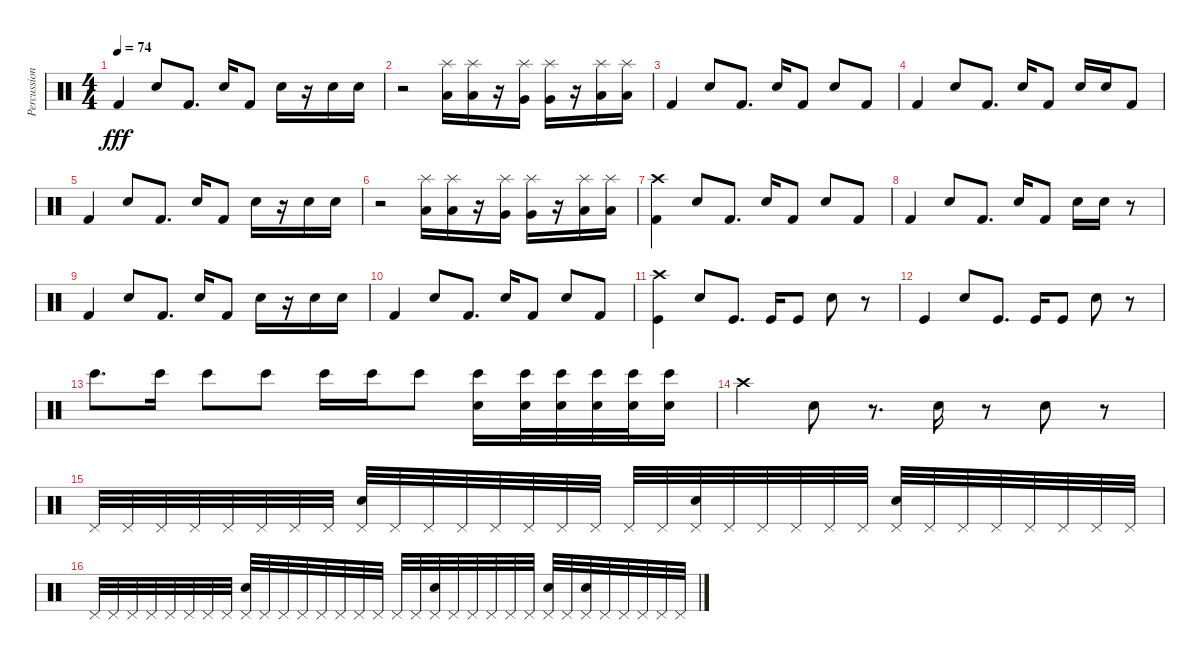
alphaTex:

\track ("Percussion" "Percussion") {instrument percussion}
\staff {score}
\articulation defaults
\ts (4 4)
\tempo 74
\clef neutral
\ks c "Kick (hit) 2".4{dy fff} "Electric Snare (hit)".8 "Kick (hit) 2".8{d} "Electric Snare (hit)".16 "Kick (hit) 2".8 "Electric Snare (hit)".16
r.16 "Electric Snare (hit)".16 "Electric Snare (hit)".16 |
r.2 ("Splash (hit)" "Low Tom (hit)").16 ("Splash (hit)" "Low Tom (hit)").16 r.16 ("Splash (hit)" "Very Low Tom (hit)").16 ("Splash (hit)" "Very Low Tom (hit)").16 r.16 ("Splash (hit)" "Low Floor Tom (hit)").16 ("Splash (hit)" "Low Floor Tom (hit)").16 |
"Kick (hit) 2".4 "Electric Snare (hit)".8 "Kick (hit) 2".8{d} "Electric Snare (hit)".16 "Kick (hit) 2".8 "Electric Snare (hit)".8 "Kick (hit) 2".8 |
"Kick (hit) 2".4 "Electric Snare (hit)".8 "Kick (hit) 2".8{d} "Electric Snare (hit)".16 "Kick (hit) 2".8 "Electric Snare (hit)".16 "Electric Snare (hit)".16 "Kick (hit) 2".8 |
"Kick (hit) 2".4 "Electric Snare (hit)".8 "Kick (hit) 2".8{d} "Electric Snare (hit)".16 "Kick (hit) 2".8 "Electric Snare (hit)".16 r.16 "Electric Snare (hit)".16 "Electric Snare (hit)".16 |
r.2 ("Splash (hit)" "Low Tom (hit)").16 ("Splash (hit)" "Low Tom (hit)").16 r.16 ("Splash (hit)" "Very Low Tom (hit)").16 ("Splash (hit)" "Very Low Tom (hit)").16 r.16 ("Splash (hit)" "Low Floor Tom (hit)").16 ("Splash (hit)" "Low Floor Tom (hit)").16 |
("Crash high (hit)" "Kick (hit) 2").4 "Electric Snare (hit)".8 "Kick (hit) 2".8{d} "Electric Snare (hit)".16 "Kick (hit) 2".8 "Electric Snare (hit)".8 "Kick (hit) 2".8 |
"Kick (hit) 2".4 "Electric Snare (hit)".8 "Kick (hit) 2".8{d} "Electric Snare (hit)".16 "Kick (hit) 2".8 "Electric Snare (hit)".16 "Electric Snare (hit)".16 r.8 |
"Kick (hit) 2".4 "Electric Snare (hit)".8 "Kick (hit) 2".8{d} "Electric Snare (hit)".16 "Kick (hit) 2".8 "Electric Snare (hit)".16 r.16 "Electric Snare (hit)".16 "Electric Snare (hit)".16 |
"Kick (hit) 2".4 "Electric Snare (hit)".8 "Kick (hit) 2".8{d} "Electric Snare (hit)".16 "Kick (hit) 2".8 "Electric Snare (hit)".8 "Kick (hit) 2".8 |
("Crash high (hit)" "Kick (hit)").4 "Hand Clap (hit)".8 "Kick (hit)".8{d} "Kick (hit)".16 "Kick (hit)".8 "Hand Clap (hit)".8 r.8 |
"Kick (hit)".4 "Hand Clap (hit)".8 "Kick (hit)".8{d} "Kick (hit)".16 "Kick (hit)".8 "Hand Clap (hit)".8 r.8 |
"Bongo High (hit)".8{d} "Bongo High (hit)".16 "Bongo High (hit)".8 "Bongo High (hit)".8 "Bongo High (hit)".16 "Bongo High (hit)".16 "Bongo High (hit)".8 ("Electric Snare (hit)" "Bongo High (hit)").16 ("Electric Snare (hit)" "Bongo High (hit)").32 ("Electric Snare (hit)" "Bongo High (hit)").32 ("Electric Snare (hit)" "Bongo High (hit)").32 ("Electric Snare (hit)" "Bongo High (hit)").32 ("Electric Snare (hit)" "Bongo High (hit)").16 |
"Crash high (hit)".4 "Electric Snare (hit)".8 r.8{d} "Electric Snare (hit)".16 r.8 "Electric Snare (hit)".8 r.8 |
"Pedal Hi-Hat (hit)".32 "Pedal Hi-Hat (hit)".32 "Pedal Hi-Hat (hit)".32 "Pedal Hi-Hat (hit)".32 "Pedal Hi-Hat (hit)".32 "Pedal Hi-Hat (hit)".32 "Pedal Hi-Hat (hit)".32 "Pedal Hi-Hat (hit)".32 ("Pedal Hi-Hat (hit)" "Electric Snare (hit)").32 "Pedal Hi-Hat (hit)".32 "Pedal Hi-Hat (hit)".32 "Pedal Hi-Hat (hit)".32 "Pedal Hi-Hat (hit)".32 "Pedal Hi-Hat (hit)".32 "Pedal Hi-Hat (hit)".32 "Pedal Hi-Hat (hit)".32 "Pedal Hi-Hat (hit)".32 "Pedal Hi-Hat (hit)".32 ("Pedal Hi-Hat (hit)" "Electric Snare (hit)").32 "Pedal Hi-Hat (hit)".32 "Pedal Hi-Hat (hit)".32 "Pedal Hi-Hat (hit)".32 "Pedal Hi-Hat (hit)".32 "Pedal Hi-Hat (hit)".32 ("Pedal Hi-Hat (hit)" "Electric Snare (hit)").32 "Pedal Hi-Hat (hit)".32 "Pedal Hi-Hat (hit)".32 "Pedal Hi-Hat (hit)".32 "Pedal Hi-Hat (hit)".32 "Pedal Hi-Hat (hit)".32 "Pedal Hi-Hat (hit)".32 "Pedal Hi-Hat (hit)".32 |
"Pedal Hi-Hat (hit)".32 "Pedal Hi-Hat (hit)".32 "Pedal Hi-Hat (hit)".32 "Pedal Hi-Hat (hit)".32 "Pedal Hi-Hat (hit)".32 "Pedal Hi-Hat (hit)".32 "Pedal Hi-Hat (hit)".32 "Pedal Hi-Hat (hit)".32 ("Pedal Hi-Hat (hit)" "Electric Snare (hit)").32 "Pedal Hi-Hat (hit)".32 "Pedal Hi-Hat (hit)".32 "Pedal Hi-Hat (hit)".32 "Pedal Hi-Hat (hit)".32 "Pedal Hi-Hat (hit)".32 "Pedal Hi-Hat (hit)".32 "Pedal Hi-Hat (hit)".32 "Pedal Hi-Hat (hit)".32 "Pedal Hi-Hat (hit)".32 ("Pedal Hi-Hat (hit)" "Electric Snare (hit)").32 "Pedal Hi-Hat (hit)".32 "Pedal Hi-Hat (hit)".32 "Pedal Hi-Hat (hit)".32 "Pedal Hi-Hat (hit)".32 "Pedal Hi-Hat (hit)".32 ("Pedal Hi-Hat (hit)" "Electric Snare (hit)").32 "Pedal Hi-Hat (hit)".32 ("Pedal Hi-Hat (hit)" "Electric Snare (hit)").32 "Pedal Hi-Hat (hit)".32 "Pedal Hi-Hat (hit)".32 "Pedal Hi-Hat (hit)".32 "Pedal Hi-Hat (hit)".32 "Pedal Hi-Hat (hit)".32
